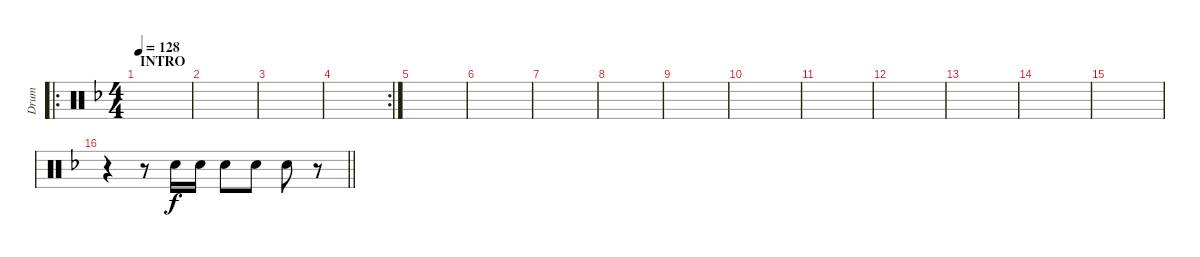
\track ("Drum" "Drum") {instrument percussion}
\staff {score}
\articulation defaults
\ro
\ts (4 4)
\section ("" "INTRO")
\tempo 128
\clef neutral
\ks f
|
|
|
\rc 2
|
|
|
|
|
|
|
|
|
|
|
|
\barLineRight lightlight
r.4 r.8 "Electric Snare (hit)".16 "Electric Snare (hit)".16 "Electric Snare (hit)".8 "Electric Snare (hit)".8 "Electric Snare (hit)".8 r.8
